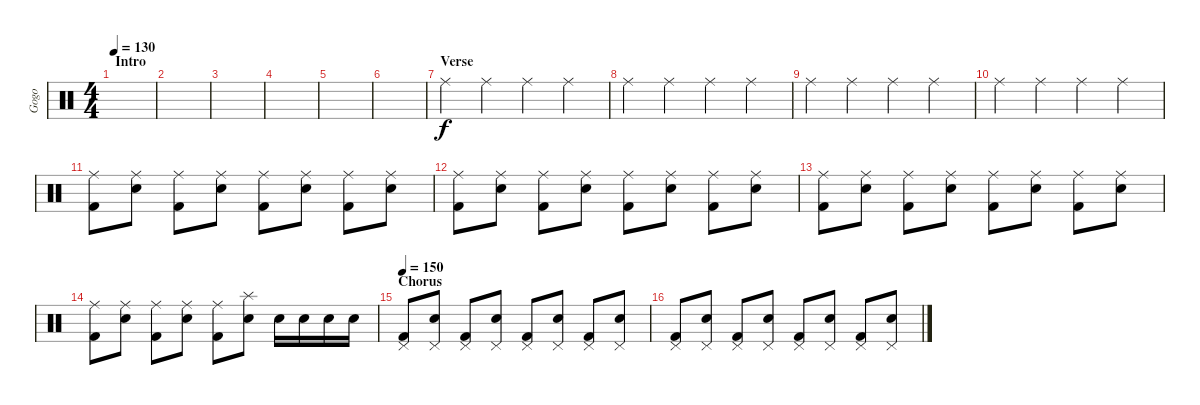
\track ("Gogo" "Gogo") {instrument percussion}
\staff {score}
\articulation defaults
\ts (4 4)
\section ("" "Intro")
\tempo 130
\clef neutral
\ks c
|
|
|
|
|
|
\section ("" "Verse")
"Ride (middle)".4 "Ride (middle)".4 "Ride (middle)".4 "Ride (middle)".4 |
"Ride (middle)".4 "Ride (middle)".4 "Ride (middle)".4 "Ride (middle)".4 |
"Ride (middle)".4 "Ride (middle)".4 "Ride (middle)".4 "Ride (middle)".4 |
"Ride (middle)".4 "Ride (middle)".4 "Ride (middle)".4 "Ride (middle)".4 |
("Ride (middle)" "Kick (hit) 2").8 ("Ride (middle)" "Electric Snare (hit)").8 ("Ride (middle)" "Kick (hit) 2").8 ("Ride (middle)" "Electric Snare (hit)").8 ("Ride (middle)" "Kick (hit) 2").8 ("Ride (middle)" "Electric Snare (hit)").8 ("Ride (middle)" "Kick (hit) 2").8 ("Ride (middle)" "Electric Snare (hit)").8 |
("Ride (middle)" "Kick (hit) 2").8 ("Ride (middle)" "Electric Snare (hit)").8 ("Ride (middle)" "Kick (hit) 2").8 ("Ride (middle)" "Electric Snare (hit)").8 ("Ride (middle)" "Kick (hit) 2").8 ("Ride (middle)" "Electric Snare (hit)").8 ("Ride (middle)" "Kick (hit) 2").8 ("Ride (middle)" "Electric Snare (hit)").8 |
("Ride (middle)" "Kick (hit) 2").8 ("Ride (middle)" "Electric Snare (hit)").8 ("Ride (middle)" "Kick (hit) 2").8 ("Ride (middle)" "Electric Snare (hit)").8 ("Ride (middle)" "Kick (hit) 2").8 ("Ride (middle)" "Electric Snare (hit)").8 ("Ride (middle)" "Kick (hit) 2").8 ("Ride (middle)" "Electric Snare (hit)").8 |
("Ride (middle)" "Kick (hit) 2").8 ("Ride (middle)" "Electric Snare (hit)").8 ("Ride (middle)" "Kick (hit) 2").8 ("Ride (middle)" "Electric Snare (hit)").8 ("Ride (middle)" "Kick (hit) 2").8 ("Splash (hit)" "Electric Snare (hit)").8 "Electric Snare (hit)".16 "Electric Snare (hit)".16 "Electric Snare (hit)".16 "Electric Snare (hit)".16 |
\section ("" "Chorus")
\tempo 150
("Pedal Hi-Hat (hit)" "Kick (hit) 2").8 ("Pedal Hi-Hat (hit)" "Electric Snare (hit)").8 ("Pedal Hi-Hat (hit)" "Kick (hit) 2").8 ("Pedal Hi-Hat (hit)" "Electric Snare (hit)").8 ("Pedal Hi-Hat (hit)" "Kick (hit) 2").8 ("Pedal Hi-Hat (hit)" "Electric Snare (hit)").8 ("Pedal Hi-Hat (hit)" "Kick (hit) 2").8 ("Pedal Hi-Hat (hit)" "Electric Snare (hit)").8 |
("Pedal Hi-Hat (hit)" "Kick (hit) 2").8 ("Pedal Hi-Hat (hit)" "Electric Snare (hit)").8 ("Pedal Hi-Hat (hit)" "Kick (hit) 2").8 ("Pedal Hi-Hat (hit)" "Electric Snare (hit)").8 ("Pedal Hi-Hat (hit)" "Kick (hit) 2").8 ("Pedal Hi-Hat (hit)" "Electric Snare (hit)").8 ("Pedal Hi-Hat (hit)" "Kick (hit) 2").8 ("Pedal Hi-Hat (hit)" "Electric Snare (hit)").8
